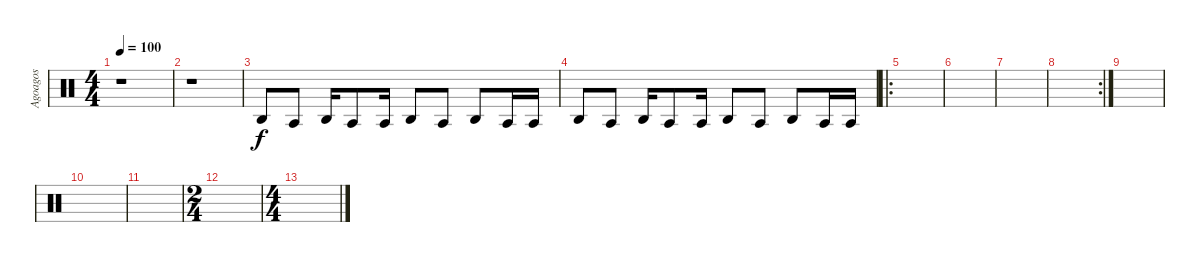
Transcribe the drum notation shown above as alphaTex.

\track ("Agoagos" "Agoagos") {instrument percussion}
\staff {score}
\articulation defaults
\ts (4 4)
\tempo 100
\clef neutral
\ks c
r.1{dy f} |
r.1 |
"Agogo high (hit)".8 "Agogo tow (hit)".8 "Agogo high (hit)".16 "Agogo tow (hit)".8 "Agogo tow (hit)".16 "Agogo high (hit)".8 "Agogo tow (hit)".8 "Agogo high (hit)".8 "Agogo tow (hit)".16 "Agogo tow (hit)".16 |
"Agogo high (hit)".8 "Agogo tow (hit)".8 "Agogo high (hit)".16 "Agogo tow (hit)".8 "Agogo tow (hit)".16 "Agogo high (hit)".8 "Agogo tow (hit)".8 "Agogo high (hit)".8 "Agogo tow (hit)".16 "Agogo tow (hit)".16 |
\ro
|
|
|
\rc 2
|
|
|
|
\ts (2 4)
|
\ts (4 4)
